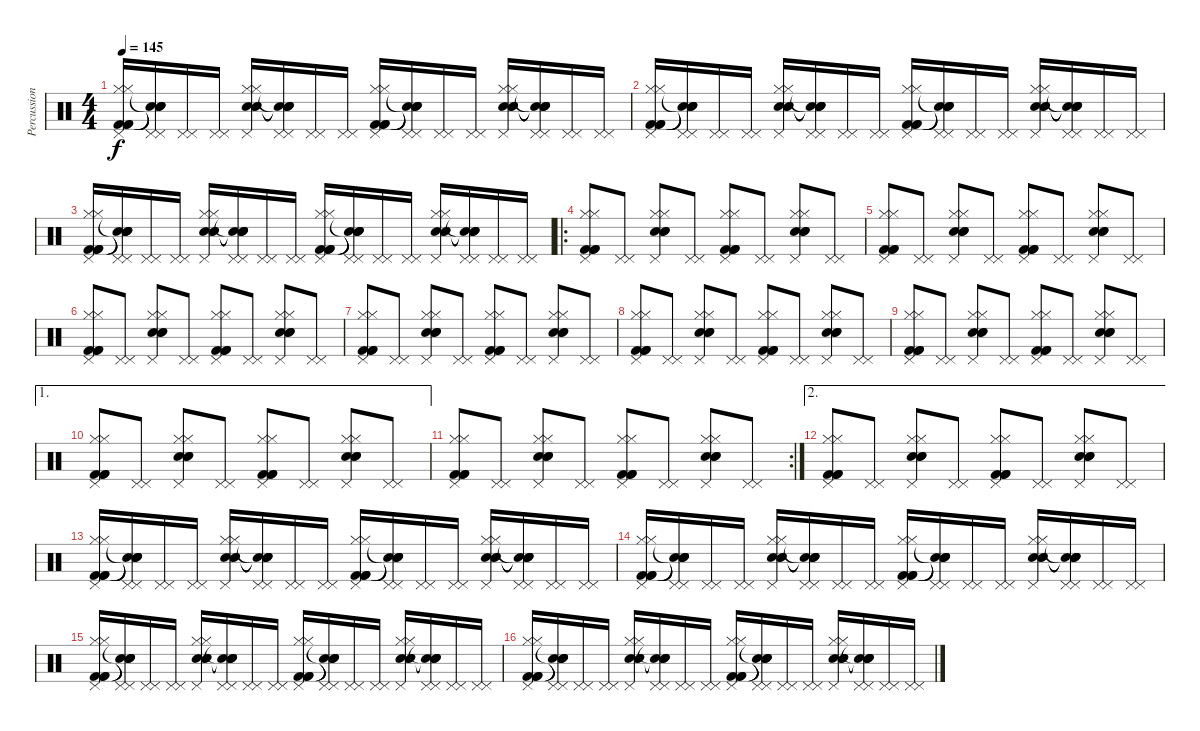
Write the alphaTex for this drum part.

\track ("Percussion" "Percussion") {instrument percussion}
\staff {score}
\articulation defaults
\ts (4 4)
\tempo 145
\clef neutral
\ks c
("Pedal Hi-Hat (hit)" "Hi-Hat (closed)" "Hi-Hat (closed)" "Kick (hit) 2" "Kick (hit) 2" "Kick (hit) 2").16{dy f} ("Pedal Hi-Hat (hit)" "Pedal Hi-Hat (hit)" "Snare (hit)"{t} "Snare (hit)"{t} "Snare (hit)"{t} "Snare (hit)"{t}).16 ("Pedal Hi-Hat (hit)" "Pedal Hi-Hat (hit)").16 ("Pedal Hi-Hat (hit)" "Pedal Hi-Hat (hit)").16 ("Pedal Hi-Hat (hit)" "Hi-Hat (closed)" "Hi-Hat (closed)" "Snare (hit) 2" "Snare (hit) 2" "Snare (hit) 2").16 ("Pedal Hi-Hat (hit)" "Pedal Hi-Hat (hit)" "Snare (hit)"{t} "Snare (hit)"{t} "Snare (hit)"{t} "Snare (hit)"{t}).16 ("Pedal Hi-Hat (hit)" "Pedal Hi-Hat (hit)").16 ("Pedal Hi-Hat (hit)" "Pedal Hi-Hat (hit)").16 ("Pedal Hi-Hat (hit)" "Hi-Hat (closed)" "Hi-Hat (closed)" "Kick (hit) 2" "Kick (hit) 2" "Kick (hit) 2").16 ("Pedal Hi-Hat (hit)" "Pedal Hi-Hat (hit)" "Snare (hit)"{t} "Snare (hit)"{t} "Snare (hit)"{t} "Snare (hit)"{t}).16 ("Pedal Hi-Hat (hit)" "Pedal Hi-Hat (hit)").16 ("Pedal Hi-Hat (hit)" "Pedal Hi-Hat (hit)").16 ("Pedal Hi-Hat (hit)" "Hi-Hat (closed)" "Hi-Hat (closed)" "Snare (hit) 2" "Snare (hit) 2" "Snare (hit) 2").16 ("Pedal Hi-Hat (hit)" "Pedal Hi-Hat (hit)" "Snare (hit)"{t} "Snare (hit)"{t} "Snare (hit)"{t} "Snare (hit)"{t}).16 ("Pedal Hi-Hat (hit)" "Pedal Hi-Hat (hit)").16 ("Pedal Hi-Hat (hit)" "Pedal Hi-Hat (hit)").16 |
("Pedal Hi-Hat (hit)" "Hi-Hat (closed)" "Hi-Hat (closed)" "Kick (hit) 2" "Kick (hit) 2" "Kick (hit) 2").16 ("Pedal Hi-Hat (hit)" "Pedal Hi-Hat (hit)" "Snare (hit)"{t} "Snare (hit)"{t} "Snare (hit)"{t} "Snare (hit)"{t}).16 ("Pedal Hi-Hat (hit)" "Pedal Hi-Hat (hit)").16 ("Pedal Hi-Hat (hit)" "Pedal Hi-Hat (hit)").16 ("Pedal Hi-Hat (hit)" "Hi-Hat (closed)" "Hi-Hat (closed)" "Snare (hit) 2" "Snare (hit) 2" "Snare (hit) 2").16 ("Pedal Hi-Hat (hit)" "Pedal Hi-Hat (hit)" "Snare (hit)"{t} "Snare (hit)"{t} "Snare (hit)"{t} "Snare (hit)"{t}).16 ("Pedal Hi-Hat (hit)" "Pedal Hi-Hat (hit)").16 ("Pedal Hi-Hat (hit)" "Pedal Hi-Hat (hit)").16 ("Pedal Hi-Hat (hit)" "Hi-Hat (closed)" "Hi-Hat (closed)" "Kick (hit) 2" "Kick (hit) 2" "Kick (hit) 2").16 ("Pedal Hi-Hat (hit)" "Pedal Hi-Hat (hit)" "Snare (hit)"{t} "Snare (hit)"{t} "Snare (hit)"{t} "Snare (hit)"{t}).16 ("Pedal Hi-Hat (hit)" "Pedal Hi-Hat (hit)").16 ("Pedal Hi-Hat (hit)" "Pedal Hi-Hat (hit)").16 ("Pedal Hi-Hat (hit)" "Hi-Hat (closed)" "Hi-Hat (closed)" "Snare (hit) 2" "Snare (hit) 2" "Snare (hit) 2").16 ("Pedal Hi-Hat (hit)" "Pedal Hi-Hat (hit)" "Snare (hit)"{t} "Snare (hit)"{t} "Snare (hit)"{t} "Snare (hit)"{t}).16 ("Pedal Hi-Hat (hit)" "Pedal Hi-Hat (hit)").16 ("Pedal Hi-Hat (hit)" "Pedal Hi-Hat (hit)").16 |
("Pedal Hi-Hat (hit)" "Hi-Hat (closed)" "Hi-Hat (closed)" "Kick (hit) 2" "Kick (hit) 2" "Kick (hit) 2").16 ("Pedal Hi-Hat (hit)" "Pedal Hi-Hat (hit)" "Snare (hit)"{t} "Snare (hit)"{t} "Snare (hit)"{t} "Snare (hit)"{t}).16 ("Pedal Hi-Hat (hit)" "Pedal Hi-Hat (hit)").16 ("Pedal Hi-Hat (hit)" "Pedal Hi-Hat (hit)").16 ("Pedal Hi-Hat (hit)" "Hi-Hat (closed)" "Hi-Hat (closed)" "Snare (hit) 2" "Snare (hit) 2" "Snare (hit) 2").16 ("Pedal Hi-Hat (hit)" "Pedal Hi-Hat (hit)" "Snare (hit)"{t} "Snare (hit)"{t} "Snare (hit)"{t} "Snare (hit)"{t}).16 ("Pedal Hi-Hat (hit)" "Pedal Hi-Hat (hit)").16 ("Pedal Hi-Hat (hit)" "Pedal Hi-Hat (hit)").16 ("Pedal Hi-Hat (hit)" "Hi-Hat (closed)" "Hi-Hat (closed)" "Kick (hit) 2" "Kick (hit) 2" "Kick (hit) 2").16 ("Pedal Hi-Hat (hit)" "Pedal Hi-Hat (hit)" "Snare (hit)"{t} "Snare (hit)"{t} "Snare (hit)"{t} "Snare (hit)"{t}).16 ("Pedal Hi-Hat (hit)" "Pedal Hi-Hat (hit)").16 ("Pedal Hi-Hat (hit)" "Pedal Hi-Hat (hit)").16 ("Pedal Hi-Hat (hit)" "Hi-Hat (closed)" "Hi-Hat (closed)" "Snare (hit) 2" "Snare (hit) 2" "Snare (hit) 2").16 ("Pedal Hi-Hat (hit)" "Pedal Hi-Hat (hit)" "Snare (hit)"{t} "Snare (hit)"{t} "Snare (hit)"{t} "Snare (hit)"{t}).16 ("Pedal Hi-Hat (hit)" "Pedal Hi-Hat (hit)").16 ("Pedal Hi-Hat (hit)" "Pedal Hi-Hat (hit)").16 |
\ro
("Pedal Hi-Hat (hit)" "Hi-Hat (closed)" "Hi-Hat (closed)" "Kick (hit) 2" "Kick (hit) 2" "Kick (hit) 2").8 ("Pedal Hi-Hat (hit)" "Pedal Hi-Hat (hit)").8 ("Pedal Hi-Hat (hit)" "Hi-Hat (closed)" "Hi-Hat (closed)" "Snare (hit) 2" "Snare (hit) 2" "Snare (hit) 2").8 ("Pedal Hi-Hat (hit)" "Pedal Hi-Hat (hit)").8 ("Pedal Hi-Hat (hit)" "Hi-Hat (closed)" "Hi-Hat (closed)" "Kick (hit) 2" "Kick (hit) 2" "Kick (hit) 2").8 ("Pedal Hi-Hat (hit)" "Pedal Hi-Hat (hit)").8 ("Pedal Hi-Hat (hit)" "Hi-Hat (closed)" "Hi-Hat (closed)" "Snare (hit) 2" "Snare (hit) 2" "Snare (hit) 2").8 ("Pedal Hi-Hat (hit)" "Pedal Hi-Hat (hit)").8 |
("Pedal Hi-Hat (hit)" "Hi-Hat (closed)" "Hi-Hat (closed)" "Kick (hit) 2" "Kick (hit) 2" "Kick (hit) 2").8 ("Pedal Hi-Hat (hit)" "Pedal Hi-Hat (hit)").8 ("Pedal Hi-Hat (hit)" "Hi-Hat (closed)" "Hi-Hat (closed)" "Snare (hit) 2" "Snare (hit) 2" "Snare (hit) 2").8 ("Pedal Hi-Hat (hit)" "Pedal Hi-Hat (hit)").8 ("Pedal Hi-Hat (hit)" "Hi-Hat (closed)" "Hi-Hat (closed)" "Kick (hit) 2" "Kick (hit) 2" "Kick (hit) 2").8 ("Pedal Hi-Hat (hit)" "Pedal Hi-Hat (hit)").8 ("Pedal Hi-Hat (hit)" "Hi-Hat (closed)" "Hi-Hat (closed)" "Snare (hit) 2" "Snare (hit) 2" "Snare (hit) 2").8 ("Pedal Hi-Hat (hit)" "Pedal Hi-Hat (hit)").8 |
("Pedal Hi-Hat (hit)" "Hi-Hat (closed)" "Hi-Hat (closed)" "Kick (hit) 2" "Kick (hit) 2" "Kick (hit) 2").8 ("Pedal Hi-Hat (hit)" "Pedal Hi-Hat (hit)").8 ("Pedal Hi-Hat (hit)" "Hi-Hat (closed)" "Hi-Hat (closed)" "Snare (hit) 2" "Snare (hit) 2" "Snare (hit) 2").8 ("Pedal Hi-Hat (hit)" "Pedal Hi-Hat (hit)").8 ("Pedal Hi-Hat (hit)" "Hi-Hat (closed)" "Hi-Hat (closed)" "Kick (hit) 2" "Kick (hit) 2" "Kick (hit) 2").8 ("Pedal Hi-Hat (hit)" "Pedal Hi-Hat (hit)").8 ("Pedal Hi-Hat (hit)" "Hi-Hat (closed)" "Hi-Hat (closed)" "Snare (hit) 2" "Snare (hit) 2" "Snare (hit) 2").8 ("Pedal Hi-Hat (hit)" "Pedal Hi-Hat (hit)").8 |
("Pedal Hi-Hat (hit)" "Hi-Hat (closed)" "Hi-Hat (closed)" "Kick (hit) 2" "Kick (hit) 2" "Kick (hit) 2").8 ("Pedal Hi-Hat (hit)" "Pedal Hi-Hat (hit)").8 ("Pedal Hi-Hat (hit)" "Hi-Hat (closed)" "Hi-Hat (closed)" "Snare (hit) 2" "Snare (hit) 2" "Snare (hit) 2").8 ("Pedal Hi-Hat (hit)" "Pedal Hi-Hat (hit)").8 ("Pedal Hi-Hat (hit)" "Hi-Hat (closed)" "Hi-Hat (closed)" "Kick (hit) 2" "Kick (hit) 2" "Kick (hit) 2").8 ("Pedal Hi-Hat (hit)" "Pedal Hi-Hat (hit)").8 ("Pedal Hi-Hat (hit)" "Hi-Hat (closed)" "Hi-Hat (closed)" "Snare (hit) 2" "Snare (hit) 2" "Snare (hit) 2").8 ("Pedal Hi-Hat (hit)" "Pedal Hi-Hat (hit)").8 |
("Pedal Hi-Hat (hit)" "Hi-Hat (closed)" "Hi-Hat (closed)" "Kick (hit) 2" "Kick (hit) 2" "Kick (hit) 2").8 ("Pedal Hi-Hat (hit)" "Pedal Hi-Hat (hit)").8 ("Pedal Hi-Hat (hit)" "Hi-Hat (closed)" "Hi-Hat (closed)" "Snare (hit) 2" "Snare (hit) 2" "Snare (hit) 2").8 ("Pedal Hi-Hat (hit)" "Pedal Hi-Hat (hit)").8 ("Pedal Hi-Hat (hit)" "Hi-Hat (closed)" "Hi-Hat (closed)" "Kick (hit) 2" "Kick (hit) 2" "Kick (hit) 2").8 ("Pedal Hi-Hat (hit)" "Pedal Hi-Hat (hit)").8 ("Pedal Hi-Hat (hit)" "Hi-Hat (closed)" "Hi-Hat (closed)" "Snare (hit) 2" "Snare (hit) 2" "Snare (hit) 2").8 ("Pedal Hi-Hat (hit)" "Pedal Hi-Hat (hit)").8 |
("Pedal Hi-Hat (hit)" "Hi-Hat (closed)" "Hi-Hat (closed)" "Kick (hit) 2" "Kick (hit) 2" "Kick (hit) 2").8 ("Pedal Hi-Hat (hit)" "Pedal Hi-Hat (hit)").8 ("Pedal Hi-Hat (hit)" "Hi-Hat (closed)" "Hi-Hat (closed)" "Snare (hit) 2" "Snare (hit) 2" "Snare (hit) 2").8 ("Pedal Hi-Hat (hit)" "Pedal Hi-Hat (hit)").8 ("Pedal Hi-Hat (hit)" "Hi-Hat (closed)" "Hi-Hat (closed)" "Kick (hit) 2" "Kick (hit) 2" "Kick (hit) 2").8 ("Pedal Hi-Hat (hit)" "Pedal Hi-Hat (hit)").8 ("Pedal Hi-Hat (hit)" "Hi-Hat (closed)" "Hi-Hat (closed)" "Snare (hit) 2" "Snare (hit) 2" "Snare (hit) 2").8 ("Pedal Hi-Hat (hit)" "Pedal Hi-Hat (hit)").8 |
\ae 1
("Pedal Hi-Hat (hit)" "Hi-Hat (closed)" "Hi-Hat (closed)" "Kick (hit) 2" "Kick (hit) 2" "Kick (hit) 2").8 ("Pedal Hi-Hat (hit)" "Pedal Hi-Hat (hit)").8 ("Pedal Hi-Hat (hit)" "Hi-Hat (closed)" "Hi-Hat (closed)" "Snare (hit) 2" "Snare (hit) 2" "Snare (hit) 2").8 ("Pedal Hi-Hat (hit)" "Pedal Hi-Hat (hit)").8 ("Pedal Hi-Hat (hit)" "Hi-Hat (closed)" "Hi-Hat (closed)" "Kick (hit) 2" "Kick (hit) 2" "Kick (hit) 2").8 ("Pedal Hi-Hat (hit)" "Pedal Hi-Hat (hit)").8 ("Pedal Hi-Hat (hit)" "Hi-Hat (closed)" "Hi-Hat (closed)" "Snare (hit) 2" "Snare (hit) 2" "Snare (hit) 2").8 ("Pedal Hi-Hat (hit)" "Pedal Hi-Hat (hit)").8 |
\rc 2
("Pedal Hi-Hat (hit)" "Hi-Hat (closed)" "Hi-Hat (closed)" "Kick (hit) 2" "Kick (hit) 2" "Kick (hit) 2").8 ("Pedal Hi-Hat (hit)" "Pedal Hi-Hat (hit)").8 ("Pedal Hi-Hat (hit)" "Hi-Hat (closed)" "Hi-Hat (closed)" "Snare (hit) 2" "Snare (hit) 2" "Snare (hit) 2").8 ("Pedal Hi-Hat (hit)" "Pedal Hi-Hat (hit)").8 ("Pedal Hi-Hat (hit)" "Hi-Hat (closed)" "Hi-Hat (closed)" "Kick (hit) 2" "Kick (hit) 2" "Kick (hit) 2").8 ("Pedal Hi-Hat (hit)" "Pedal Hi-Hat (hit)").8 ("Pedal Hi-Hat (hit)" "Hi-Hat (closed)" "Hi-Hat (closed)" "Snare (hit) 2" "Snare (hit) 2" "Snare (hit) 2").8 ("Pedal Hi-Hat (hit)" "Pedal Hi-Hat (hit)").8 |
\ae 2
("Pedal Hi-Hat (hit)" "Hi-Hat (closed)" "Hi-Hat (closed)" "Kick (hit) 2" "Kick (hit) 2" "Kick (hit) 2").8 ("Pedal Hi-Hat (hit)" "Pedal Hi-Hat (hit)").8 ("Pedal Hi-Hat (hit)" "Hi-Hat (closed)" "Hi-Hat (closed)" "Snare (hit) 2" "Snare (hit) 2" "Snare (hit) 2").8 ("Pedal Hi-Hat (hit)" "Pedal Hi-Hat (hit)").8 ("Pedal Hi-Hat (hit)" "Hi-Hat (closed)" "Hi-Hat (closed)" "Kick (hit) 2" "Kick (hit) 2" "Kick (hit) 2").8 ("Pedal Hi-Hat (hit)" "Pedal Hi-Hat (hit)").8 ("Pedal Hi-Hat (hit)" "Hi-Hat (closed)" "Hi-Hat (closed)" "Snare (hit) 2" "Snare (hit) 2" "Snare (hit) 2").8 ("Pedal Hi-Hat (hit)" "Pedal Hi-Hat (hit)").8 |
("Pedal Hi-Hat (hit)" "Hi-Hat (closed)" "Hi-Hat (closed)" "Kick (hit) 2" "Kick (hit) 2" "Kick (hit) 2").16 ("Pedal Hi-Hat (hit)" "Pedal Hi-Hat (hit)" "Snare (hit)"{t} "Snare (hit)"{t} "Snare (hit)"{t} "Snare (hit)"{t}).16 ("Pedal Hi-Hat (hit)" "Pedal Hi-Hat (hit)").16 ("Pedal Hi-Hat (hit)" "Pedal Hi-Hat (hit)").16 ("Pedal Hi-Hat (hit)" "Hi-Hat (closed)" "Hi-Hat (closed)" "Snare (hit) 2" "Snare (hit) 2" "Snare (hit) 2").16 ("Pedal Hi-Hat (hit)" "Pedal Hi-Hat (hit)" "Snare (hit)"{t} "Snare (hit)"{t} "Snare (hit)"{t} "Snare (hit)"{t}).16 ("Pedal Hi-Hat (hit)" "Pedal Hi-Hat (hit)").16 ("Pedal Hi-Hat (hit)" "Pedal Hi-Hat (hit)").16 ("Pedal Hi-Hat (hit)" "Hi-Hat (closed)" "Hi-Hat (closed)" "Kick (hit) 2" "Kick (hit) 2" "Kick (hit) 2").16 ("Pedal Hi-Hat (hit)" "Pedal Hi-Hat (hit)" "Snare (hit)"{t} "Snare (hit)"{t} "Snare (hit)"{t} "Snare (hit)"{t}).16 ("Pedal Hi-Hat (hit)" "Pedal Hi-Hat (hit)").16 ("Pedal Hi-Hat (hit)" "Pedal Hi-Hat (hit)").16 ("Pedal Hi-Hat (hit)" "Hi-Hat (closed)" "Hi-Hat (closed)" "Snare (hit) 2" "Snare (hit) 2" "Snare (hit) 2").16 ("Pedal Hi-Hat (hit)" "Pedal Hi-Hat (hit)" "Snare (hit)"{t} "Snare (hit)"{t} "Snare (hit)"{t} "Snare (hit)"{t}).16 ("Pedal Hi-Hat (hit)" "Pedal Hi-Hat (hit)").16 ("Pedal Hi-Hat (hit)" "Pedal Hi-Hat (hit)").16 |
("Pedal Hi-Hat (hit)" "Hi-Hat (closed)" "Hi-Hat (closed)" "Kick (hit) 2" "Kick (hit) 2" "Kick (hit) 2").16 ("Pedal Hi-Hat (hit)" "Pedal Hi-Hat (hit)" "Snare (hit)"{t} "Snare (hit)"{t} "Snare (hit)"{t} "Snare (hit)"{t}).16 ("Pedal Hi-Hat (hit)" "Pedal Hi-Hat (hit)").16 ("Pedal Hi-Hat (hit)" "Pedal Hi-Hat (hit)").16 ("Pedal Hi-Hat (hit)" "Hi-Hat (closed)" "Hi-Hat (closed)" "Snare (hit) 2" "Snare (hit) 2" "Snare (hit) 2").16 ("Pedal Hi-Hat (hit)" "Pedal Hi-Hat (hit)" "Snare (hit)"{t} "Snare (hit)"{t} "Snare (hit)"{t} "Snare (hit)"{t}).16 ("Pedal Hi-Hat (hit)" "Pedal Hi-Hat (hit)").16 ("Pedal Hi-Hat (hit)" "Pedal Hi-Hat (hit)").16 ("Pedal Hi-Hat (hit)" "Hi-Hat (closed)" "Hi-Hat (closed)" "Kick (hit) 2" "Kick (hit) 2" "Kick (hit) 2").16 ("Pedal Hi-Hat (hit)" "Pedal Hi-Hat (hit)" "Snare (hit)"{t} "Snare (hit)"{t} "Snare (hit)"{t} "Snare (hit)"{t}).16 ("Pedal Hi-Hat (hit)" "Pedal Hi-Hat (hit)").16 ("Pedal Hi-Hat (hit)" "Pedal Hi-Hat (hit)").16 ("Pedal Hi-Hat (hit)" "Hi-Hat (closed)" "Hi-Hat (closed)" "Snare (hit) 2" "Snare (hit) 2" "Snare (hit) 2").16 ("Pedal Hi-Hat (hit)" "Pedal Hi-Hat (hit)" "Snare (hit)"{t} "Snare (hit)"{t} "Snare (hit)"{t} "Snare (hit)"{t}).16 ("Pedal Hi-Hat (hit)" "Pedal Hi-Hat (hit)").16 ("Pedal Hi-Hat (hit)" "Pedal Hi-Hat (hit)").16 |
("Pedal Hi-Hat (hit)" "Hi-Hat (closed)" "Hi-Hat (closed)" "Kick (hit) 2" "Kick (hit) 2" "Kick (hit) 2").16 ("Pedal Hi-Hat (hit)" "Pedal Hi-Hat (hit)" "Snare (hit)"{t} "Snare (hit)"{t} "Snare (hit)"{t} "Snare (hit)"{t}).16 ("Pedal Hi-Hat (hit)" "Pedal Hi-Hat (hit)").16 ("Pedal Hi-Hat (hit)" "Pedal Hi-Hat (hit)").16 ("Pedal Hi-Hat (hit)" "Hi-Hat (closed)" "Hi-Hat (closed)" "Snare (hit) 2" "Snare (hit) 2" "Snare (hit) 2").16 ("Pedal Hi-Hat (hit)" "Pedal Hi-Hat (hit)" "Snare (hit)"{t} "Snare (hit)"{t} "Snare (hit)"{t} "Snare (hit)"{t}).16 ("Pedal Hi-Hat (hit)" "Pedal Hi-Hat (hit)").16 ("Pedal Hi-Hat (hit)" "Pedal Hi-Hat (hit)").16 ("Pedal Hi-Hat (hit)" "Hi-Hat (closed)" "Hi-Hat (closed)" "Kick (hit) 2" "Kick (hit) 2" "Kick (hit) 2").16 ("Pedal Hi-Hat (hit)" "Pedal Hi-Hat (hit)" "Snare (hit)"{t} "Snare (hit)"{t} "Snare (hit)"{t} "Snare (hit)"{t}).16 ("Pedal Hi-Hat (hit)" "Pedal Hi-Hat (hit)").16 ("Pedal Hi-Hat (hit)" "Pedal Hi-Hat (hit)").16 ("Pedal Hi-Hat (hit)" "Hi-Hat (closed)" "Hi-Hat (closed)" "Snare (hit) 2" "Snare (hit) 2" "Snare (hit) 2").16 ("Pedal Hi-Hat (hit)" "Pedal Hi-Hat (hit)" "Snare (hit)"{t} "Snare (hit)"{t} "Snare (hit)"{t} "Snare (hit)"{t}).16 ("Pedal Hi-Hat (hit)" "Pedal Hi-Hat (hit)").16 ("Pedal Hi-Hat (hit)" "Pedal Hi-Hat (hit)").16 |
("Pedal Hi-Hat (hit)" "Hi-Hat (closed)" "Hi-Hat (closed)" "Kick (hit) 2" "Kick (hit) 2" "Kick (hit) 2").16 ("Pedal Hi-Hat (hit)" "Pedal Hi-Hat (hit)" "Snare (hit)"{t} "Snare (hit)"{t} "Snare (hit)"{t} "Snare (hit)"{t}).16 ("Pedal Hi-Hat (hit)" "Pedal Hi-Hat (hit)").16 ("Pedal Hi-Hat (hit)" "Pedal Hi-Hat (hit)").16 ("Pedal Hi-Hat (hit)" "Hi-Hat (closed)" "Hi-Hat (closed)" "Snare (hit) 2" "Snare (hit) 2" "Snare (hit) 2").16 ("Pedal Hi-Hat (hit)" "Pedal Hi-Hat (hit)" "Snare (hit)"{t} "Snare (hit)"{t} "Snare (hit)"{t} "Snare (hit)"{t}).16 ("Pedal Hi-Hat (hit)" "Pedal Hi-Hat (hit)").16 ("Pedal Hi-Hat (hit)" "Pedal Hi-Hat (hit)").16 ("Pedal Hi-Hat (hit)" "Hi-Hat (closed)" "Hi-Hat (closed)" "Kick (hit) 2" "Kick (hit) 2" "Kick (hit) 2").16 ("Pedal Hi-Hat (hit)" "Pedal Hi-Hat (hit)" "Snare (hit)"{t} "Snare (hit)"{t} "Snare (hit)"{t} "Snare (hit)"{t}).16 ("Pedal Hi-Hat (hit)" "Pedal Hi-Hat (hit)").16 ("Pedal Hi-Hat (hit)" "Pedal Hi-Hat (hit)").16 ("Pedal Hi-Hat (hit)" "Hi-Hat (closed)" "Hi-Hat (closed)" "Snare (hit) 2" "Snare (hit) 2" "Snare (hit) 2").16 ("Pedal Hi-Hat (hit)" "Pedal Hi-Hat (hit)" "Snare (hit)"{t} "Snare (hit)"{t} "Snare (hit)"{t} "Snare (hit)"{t}).16 ("Pedal Hi-Hat (hit)" "Pedal Hi-Hat (hit)").16 ("Pedal Hi-Hat (hit)" "Pedal Hi-Hat (hit)").16
